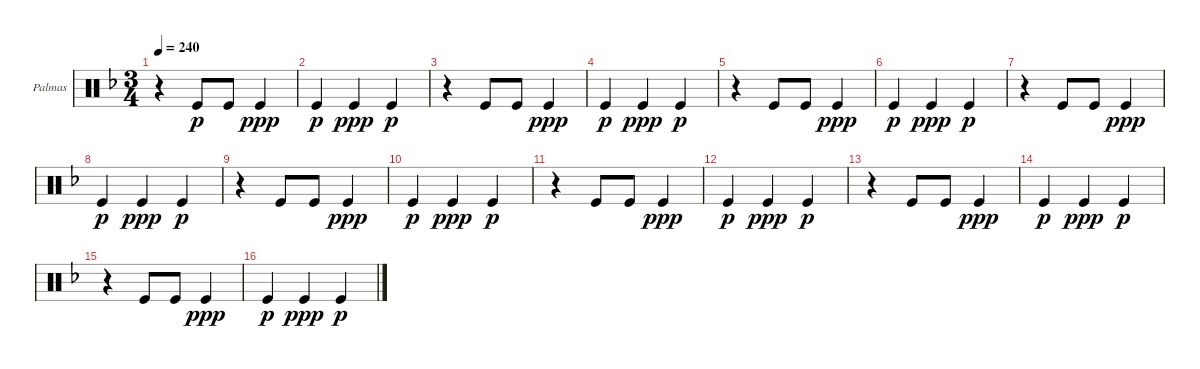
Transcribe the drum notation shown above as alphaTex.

\defaultSystemsLayout 4
\bracketExtendMode groupsimilarinstruments
\firstSystemTrackNameOrientation horizontal
\otherSystemsTrackNameOrientation horizontal
\track ("Palmas" "Palmas") {instrument percussion}
\staff {score}
\articulation defaults
\ts (3 4)
\tempo 240
\clef neutral
\ks f
r.4{dy p} "Kick (hit)".8 "Kick (hit)".8 "Kick (hit)".4{dy ppp} |
"Kick (hit)".4{dy p} "Kick (hit)".4{dy ppp} "Kick (hit)".4{dy p} |
r.4 "Kick (hit)".8 "Kick (hit)".8 "Kick (hit)".4{dy ppp} |
"Kick (hit)".4{dy p} "Kick (hit)".4{dy ppp} "Kick (hit)".4{dy p} |
r.4 "Kick (hit)".8 "Kick (hit)".8 "Kick (hit)".4{dy ppp} |
"Kick (hit)".4{dy p} "Kick (hit)".4{dy ppp} "Kick (hit)".4{dy p} |
r.4 "Kick (hit)".8 "Kick (hit)".8 "Kick (hit)".4{dy ppp} |
"Kick (hit)".4{dy p} "Kick (hit)".4{dy ppp} "Kick (hit)".4{dy p} |
r.4 "Kick (hit)".8 "Kick (hit)".8 "Kick (hit)".4{dy ppp} |
"Kick (hit)".4{dy p} "Kick (hit)".4{dy ppp} "Kick (hit)".4{dy p} |
r.4 "Kick (hit)".8 "Kick (hit)".8 "Kick (hit)".4{dy ppp} |
"Kick (hit)".4{dy p} "Kick (hit)".4{dy ppp} "Kick (hit)".4{dy p} |
r.4 "Kick (hit)".8 "Kick (hit)".8 "Kick (hit)".4{dy ppp} |
"Kick (hit)".4{dy p} "Kick (hit)".4{dy ppp} "Kick (hit)".4{dy p} |
r.4 "Kick (hit)".8 "Kick (hit)".8 "Kick (hit)".4{dy ppp} |
"Kick (hit)".4{dy p} "Kick (hit)".4{dy ppp} "Kick (hit)".4{dy p}
